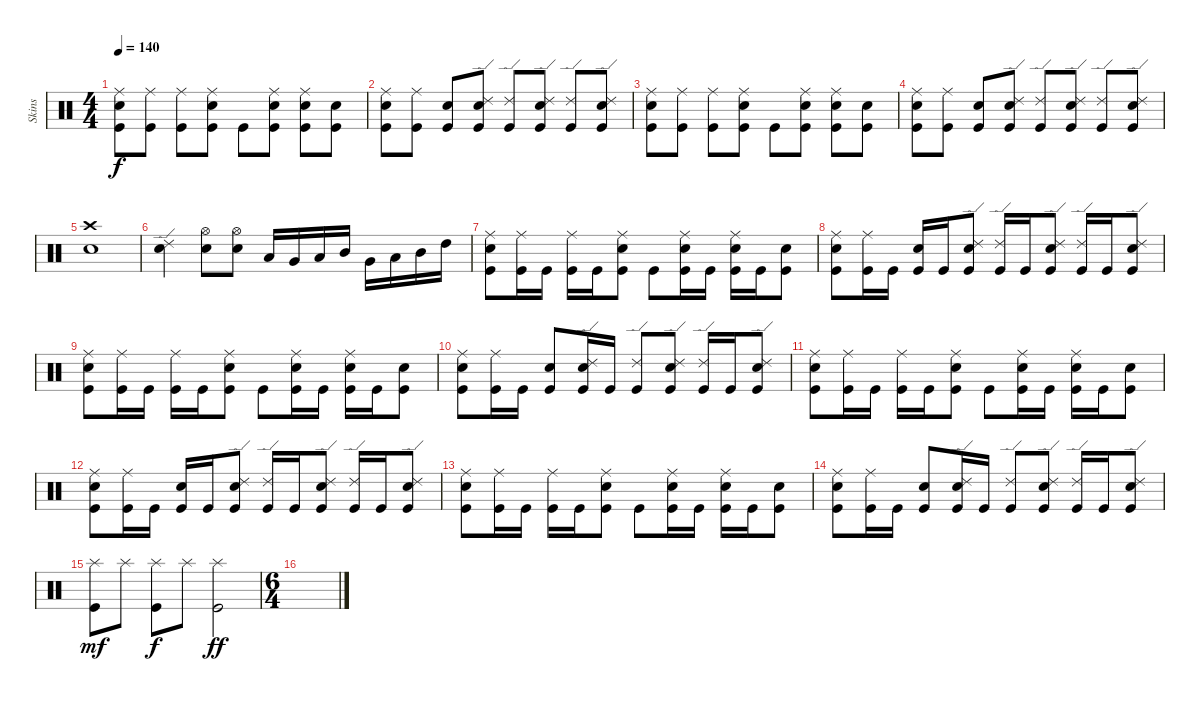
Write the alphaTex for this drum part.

\track ("Skins" "Skins") {instrument percussion}
\staff {score}
\articulation defaults
\ts (4 4)
\tempo 140
\clef neutral
\ks c
("Ride (middle)" "Snare (hit) 2" "Kick (hit)").8{dy f} ("Ride (middle)" "Kick (hit)").8 ("Ride (middle)" "Kick (hit)").8 ("Ride (middle)" "Snare (hit) 2" "Kick (hit)").8 "Kick (hit)".8 ("Ride (middle)" "Snare (hit) 2" "Kick (hit)").8 ("Ride (middle)" "Snare (hit) 2" "Kick (hit)").8 ("Electric Snare (hit)" "Kick (hit)").8 |
("Ride (middle)" "Snare (hit) 2" "Kick (hit)").8 ("Ride (middle)" "Kick (hit)").8 ("Snare (hit) 2" "Kick (hit)").8 ("Ride (edge) 2" "Electric Snare (hit)" "Kick (hit)").8 ("Ride (edge) 2" "Kick (hit)").8 ("Ride (edge) 2" "Electric Snare (hit)" "Kick (hit)").8 ("Ride (edge) 2" "Kick (hit)").8 ("Ride (edge) 2" "Electric Snare (hit)" "Kick (hit)").8 |
("Ride (middle)" "Snare (hit) 2" "Kick (hit)").8 ("Ride (middle)" "Kick (hit)").8 ("Ride (middle)" "Kick (hit)").8 ("Ride (middle)" "Snare (hit) 2" "Kick (hit)").8 "Kick (hit)".8 ("Ride (middle)" "Snare (hit) 2" "Kick (hit)").8 ("Ride (middle)" "Snare (hit) 2" "Kick (hit)").8 ("Electric Snare (hit)" "Kick (hit)").8 |
("Ride (middle)" "Snare (hit) 2" "Kick (hit)").8 ("Ride (middle)" "Kick (hit)").8 ("Snare (hit) 2" "Kick (hit)").8 ("Ride (edge) 2" "Electric Snare (hit)" "Kick (hit)").8 ("Ride (edge) 2" "Kick (hit)").8 ("Ride (edge) 2" "Electric Snare (hit)" "Kick (hit)").8 ("Ride (edge) 2" "Kick (hit)").8 ("Ride (edge) 2" "Electric Snare (hit)" "Kick (hit)").8 |
("Crash high (hit)" "Electric Snare (hit)").1 |
("Ride (edge) 2" "Snare (hit) 2").4 ("Hi-Hat (open)" "Electric Snare (hit)").8 ("Hi-Hat (open)" "Electric Snare (hit)").8 "Low Floor Tom (hit)".16 "Very Low Tom (hit)".16 "Low Tom (hit)".16 "Mid Tom (hit)".16 "Very Low Tom (hit)".16 "Low Tom (hit)".16 "Mid Tom (hit)".16 "High Tom (hit)".16 |
("Ride (middle)" "Snare (hit) 2" "Kick (hit)").8 ("Ride (middle)" "Kick (hit)").16 "Kick (hit)".16 ("Ride (middle)" "Kick (hit)").16 "Kick (hit)".16 ("Ride (middle)" "Snare (hit) 2" "Kick (hit)").8 "Kick (hit)".8 ("Ride (middle)" "Snare (hit) 2" "Kick (hit)").16 "Kick (hit)".16 ("Ride (middle)" "Snare (hit) 2" "Kick (hit)").16 "Kick (hit)".16 ("Electric Snare (hit)" "Kick (hit)").8 |
("Ride (middle)" "Snare (hit) 2" "Kick (hit)").8 ("Ride (middle)" "Kick (hit)").16 "Kick (hit)".16 ("Snare (hit) 2" "Kick (hit)").16 "Kick (hit)".16 ("Ride (edge) 2" "Electric Snare (hit)" "Kick (hit)").8 ("Ride (edge) 2" "Kick (hit)").16 "Kick (hit)".16 ("Ride (edge) 2" "Electric Snare (hit)" "Kick (hit)").8 ("Ride (edge) 2" "Kick (hit)").16 "Kick (hit)".16 ("Ride (edge) 2" "Electric Snare (hit)" "Kick (hit)").8 |
("Ride (middle)" "Snare (hit) 2" "Kick (hit)").8 ("Ride (middle)" "Kick (hit)").16 "Kick (hit)".16 ("Ride (middle)" "Kick (hit)").16 "Kick (hit)".16 ("Ride (middle)" "Snare (hit) 2" "Kick (hit)").8 "Kick (hit)".8 ("Ride (middle)" "Snare (hit) 2" "Kick (hit)").16 "Kick (hit)".16 ("Ride (middle)" "Snare (hit) 2" "Kick (hit)").16 "Kick (hit)".16 ("Electric Snare (hit)" "Kick (hit)").8 |
("Ride (middle)" "Snare (hit) 2" "Kick (hit)").8 ("Ride (middle)" "Kick (hit)").16 "Kick (hit)".16 ("Snare (hit) 2" "Kick (hit)").8 ("Ride (edge) 2" "Electric Snare (hit)" "Kick (hit)").16 "Kick (hit)".16 ("Ride (edge) 2" "Kick (hit)").8 ("Ride (edge) 2" "Electric Snare (hit)" "Kick (hit)").8 ("Ride (edge) 2" "Kick (hit)").16 "Kick (hit)".16 ("Ride (edge) 2" "Electric Snare (hit)" "Kick (hit)").8 |
("Ride (middle)" "Snare (hit) 2" "Kick (hit)").8 ("Ride (middle)" "Kick (hit)").16 "Kick (hit)".16 ("Ride (middle)" "Kick (hit)").16 "Kick (hit)".16 ("Ride (middle)" "Snare (hit) 2" "Kick (hit)").8 "Kick (hit)".8 ("Ride (middle)" "Snare (hit) 2" "Kick (hit)").16 "Kick (hit)".16 ("Ride (middle)" "Snare (hit) 2" "Kick (hit)").16 "Kick (hit)".16 ("Electric Snare (hit)" "Kick (hit)").8 |
("Ride (middle)" "Snare (hit) 2" "Kick (hit)").8 ("Ride (middle)" "Kick (hit)").16 "Kick (hit)".16 ("Snare (hit) 2" "Kick (hit)").16 "Kick (hit)".16 ("Ride (edge) 2" "Electric Snare (hit)" "Kick (hit)").8 ("Ride (edge) 2" "Kick (hit)").16 "Kick (hit)".16 ("Ride (edge) 2" "Electric Snare (hit)" "Kick (hit)").8 ("Ride (edge) 2" "Kick (hit)").16 "Kick (hit)".16 ("Ride (edge) 2" "Electric Snare (hit)" "Kick (hit)").8 |
("Ride (middle)" "Snare (hit) 2" "Kick (hit)").8 ("Ride (middle)" "Kick (hit)").16 "Kick (hit)".16 ("Ride (middle)" "Kick (hit)").16 "Kick (hit)".16 ("Ride (middle)" "Snare (hit) 2" "Kick (hit)").8 "Kick (hit)".8 ("Ride (middle)" "Snare (hit) 2" "Kick (hit)").16 "Kick (hit)".16 ("Ride (middle)" "Snare (hit) 2" "Kick (hit)").16 "Kick (hit)".16 ("Electric Snare (hit)" "Kick (hit)").8 |
("Ride (middle)" "Snare (hit) 2" "Kick (hit)").8 ("Ride (middle)" "Kick (hit)").16 "Kick (hit)".16 ("Snare (hit) 2" "Kick (hit)").8 ("Ride (edge) 2" "Electric Snare (hit)" "Kick (hit)").16 "Kick (hit)".16 ("Ride (edge) 2" "Kick (hit)").8 ("Ride (edge) 2" "Electric Snare (hit)" "Kick (hit)").8 ("Ride (edge) 2" "Kick (hit)").16 "Kick (hit)".16 ("Ride (edge) 2" "Electric Snare (hit)" "Kick (hit)").8 |
("Splash (hit)" "Kick (hit)").8{dy mf} "Splash (hit)".8 ("Splash (hit)" "Kick (hit)").8{dy f} "Splash (hit)".8 ("Splash (hit)" "Kick (hit)").2{dy ff} |
\ts (6 4)
